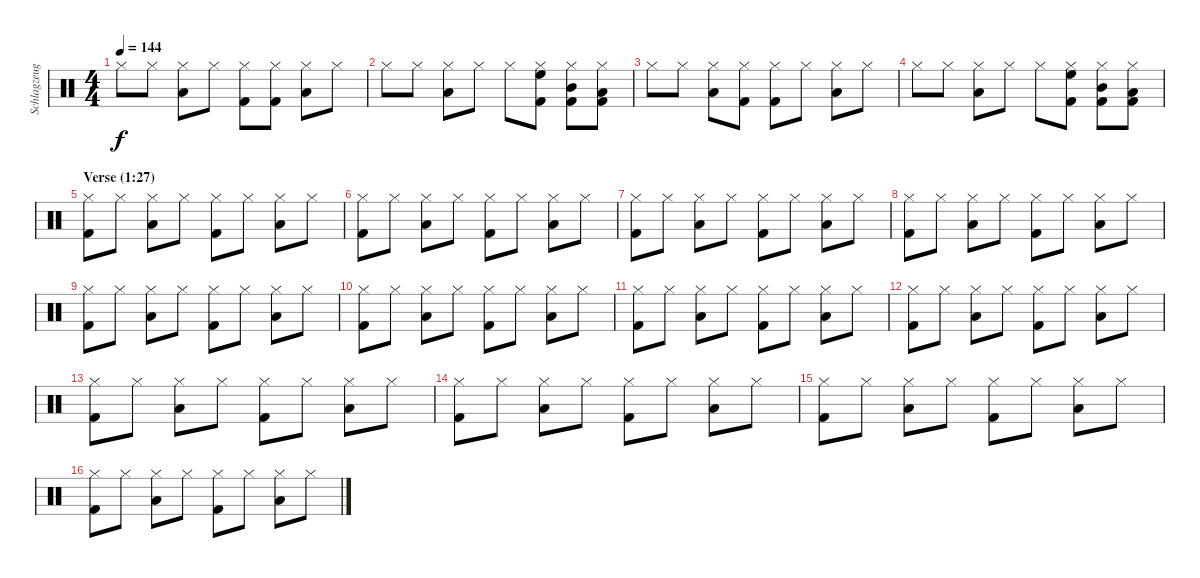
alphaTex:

\track ("Schlagzeug" "Schlagzeug") {instrument percussion}
\staff {score}
\articulation defaults
\ts (4 4)
\tempo 144
\clef neutral
\ks c "Hi-Hat (closed)".8{dy f} "Hi-Hat (closed)".8
("Hi-Hat (closed)" "Low Tom (hit)").8 "Hi-Hat (closed)".8 ("Hi-Hat (closed)" "Kick (hit) 2").8 ("Hi-Hat (closed)" "Kick (hit) 2").8 ("Hi-Hat (closed)" "Low Tom (hit)").8 "Hi-Hat (closed)".8 |
"Hi-Hat (closed)".8 "Hi-Hat (closed)".8 ("Hi-Hat (closed)" "Low Tom (hit)").8 "Hi-Hat (closed)".8 "Hi-Hat (closed)".8 ("Hi-Hat (closed)" "High Floor Tom (hit)" "Kick (hit) 2").8 ("Hi-Hat (closed)" "Mid Tom (hit)" "Kick (hit) 2").8 ("Hi-Hat (closed)" "Low Tom (hit)" "Kick (hit) 2").8 |
"Hi-Hat (closed)".8 "Hi-Hat (closed)".8 ("Hi-Hat (closed)" "Low Tom (hit)").8 ("Hi-Hat (closed)" "Kick (hit) 2").8 ("Hi-Hat (closed)" "Kick (hit) 2").8 "Hi-Hat (closed)".8 ("Hi-Hat (closed)" "Low Tom (hit)").8 "Hi-Hat (closed)".8 |
"Hi-Hat (closed)".8 "Hi-Hat (closed)".8 ("Hi-Hat (closed)" "Low Tom (hit)").8 "Hi-Hat (closed)".8 "Hi-Hat (closed)".8 ("Hi-Hat (closed)" "High Floor Tom (hit)" "Kick (hit) 2").8 ("Hi-Hat (closed)" "Mid Tom (hit)" "Kick (hit) 2").8 ("Hi-Hat (closed)" "Low Tom (hit)" "Kick (hit) 2").8 |
\section ("" "Verse (1:27)")
("Hi-Hat (closed)" "Kick (hit) 2").8 "Hi-Hat (closed)".8 ("Hi-Hat (closed)" "Low Tom (hit)").8 "Hi-Hat (closed)".8 ("Hi-Hat (closed)" "Kick (hit) 2").8 "Hi-Hat (closed)".8 ("Hi-Hat (closed)" "Low Tom (hit)").8 "Hi-Hat (closed)".8 |
("Hi-Hat (closed)" "Kick (hit) 2").8 "Hi-Hat (closed)".8 ("Hi-Hat (closed)" "Low Tom (hit)").8 "Hi-Hat (closed)".8 ("Hi-Hat (closed)" "Kick (hit) 2").8 "Hi-Hat (closed)".8 ("Hi-Hat (closed)" "Low Tom (hit)").8 "Hi-Hat (closed)".8 |
("Hi-Hat (closed)" "Kick (hit) 2").8 "Hi-Hat (closed)".8 ("Hi-Hat (closed)" "Low Tom (hit)").8 "Hi-Hat (closed)".8 ("Hi-Hat (closed)" "Kick (hit) 2").8 "Hi-Hat (closed)".8 ("Hi-Hat (closed)" "Low Tom (hit)").8 "Hi-Hat (closed)".8 |
("Hi-Hat (closed)" "Kick (hit) 2").8 "Hi-Hat (closed)".8 ("Hi-Hat (closed)" "Low Tom (hit)").8 "Hi-Hat (closed)".8 ("Hi-Hat (closed)" "Kick (hit) 2").8 "Hi-Hat (closed)".8 ("Hi-Hat (closed)" "Low Tom (hit)").8 "Hi-Hat (closed)".8 |
("Hi-Hat (closed)" "Kick (hit) 2").8 "Hi-Hat (closed)".8 ("Hi-Hat (closed)" "Low Tom (hit)").8 "Hi-Hat (closed)".8 ("Hi-Hat (closed)" "Kick (hit) 2").8 "Hi-Hat (closed)".8 ("Hi-Hat (closed)" "Low Tom (hit)").8 "Hi-Hat (closed)".8 |
("Hi-Hat (closed)" "Kick (hit) 2").8 "Hi-Hat (closed)".8 ("Hi-Hat (closed)" "Low Tom (hit)").8 "Hi-Hat (closed)".8 ("Hi-Hat (closed)" "Kick (hit) 2").8 "Hi-Hat (closed)".8 ("Hi-Hat (closed)" "Low Tom (hit)").8 "Hi-Hat (closed)".8 |
("Hi-Hat (closed)" "Kick (hit) 2").8 "Hi-Hat (closed)".8 ("Hi-Hat (closed)" "Low Tom (hit)").8 "Hi-Hat (closed)".8 ("Hi-Hat (closed)" "Kick (hit) 2").8 "Hi-Hat (closed)".8 ("Hi-Hat (closed)" "Low Tom (hit)").8 "Hi-Hat (closed)".8 |
("Hi-Hat (closed)" "Kick (hit) 2").8 "Hi-Hat (closed)".8 ("Hi-Hat (closed)" "Low Tom (hit)").8 "Hi-Hat (closed)".8 ("Hi-Hat (closed)" "Kick (hit) 2").8 "Hi-Hat (closed)".8 ("Hi-Hat (closed)" "Low Tom (hit)").8 "Hi-Hat (closed)".8 |
("Hi-Hat (closed)" "Kick (hit) 2").8 "Hi-Hat (closed)".8 ("Hi-Hat (closed)" "Low Tom (hit)").8 "Hi-Hat (closed)".8 ("Hi-Hat (closed)" "Kick (hit) 2").8 "Hi-Hat (closed)".8 ("Hi-Hat (closed)" "Low Tom (hit)").8 "Hi-Hat (closed)".8 |
("Hi-Hat (closed)" "Kick (hit) 2").8 "Hi-Hat (closed)".8 ("Hi-Hat (closed)" "Low Tom (hit)").8 "Hi-Hat (closed)".8 ("Hi-Hat (closed)" "Kick (hit) 2").8 "Hi-Hat (closed)".8 ("Hi-Hat (closed)" "Low Tom (hit)").8 "Hi-Hat (closed)".8 |
("Hi-Hat (closed)" "Kick (hit) 2").8 "Hi-Hat (closed)".8 ("Hi-Hat (closed)" "Low Tom (hit)").8 "Hi-Hat (closed)".8 ("Hi-Hat (closed)" "Kick (hit) 2").8 "Hi-Hat (closed)".8 ("Hi-Hat (closed)" "Low Tom (hit)").8 "Hi-Hat (closed)".8 |
("Hi-Hat (closed)" "Kick (hit) 2").8 "Hi-Hat (closed)".8 ("Hi-Hat (closed)" "Low Tom (hit)").8 "Hi-Hat (closed)".8 ("Hi-Hat (closed)" "Kick (hit) 2").8 "Hi-Hat (closed)".8 ("Hi-Hat (closed)" "Low Tom (hit)").8 "Hi-Hat (closed)".8
